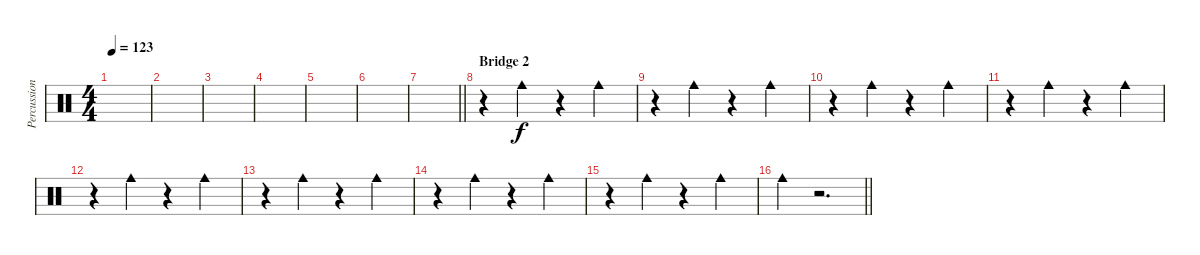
\track ("Percussion 2" "Percussion") {instrument percussion}
\staff {score}
\articulation defaults
\ts (4 4)
\tempo 123
\clef neutral
\ks c
|
|
|
|
|
|
\barLineRight lightlight
|
\section ("" "Bridge 2")
r.4 "Cowbell medium (hit)".4 r.4 "Cowbell medium (hit)".4 |
r.4 "Cowbell medium (hit)".4 r.4 "Cowbell medium (hit)".4 |
r.4 "Cowbell medium (hit)".4 r.4 "Cowbell medium (hit)".4 |
r.4 "Cowbell medium (hit)".4 r.4 "Cowbell medium (hit)".4 |
r.4 "Cowbell medium (hit)".4 r.4 "Cowbell medium (hit)".4 |
r.4 "Cowbell medium (hit)".4 r.4 "Cowbell medium (hit)".4 |
r.4 "Cowbell medium (hit)".4 r.4 "Cowbell medium (hit)".4 |
r.4 "Cowbell medium (hit)".4 r.4 "Cowbell medium (hit)".4 |
\barLineRight lightlight "Cowbell medium (hit)".4
r.2{d}
